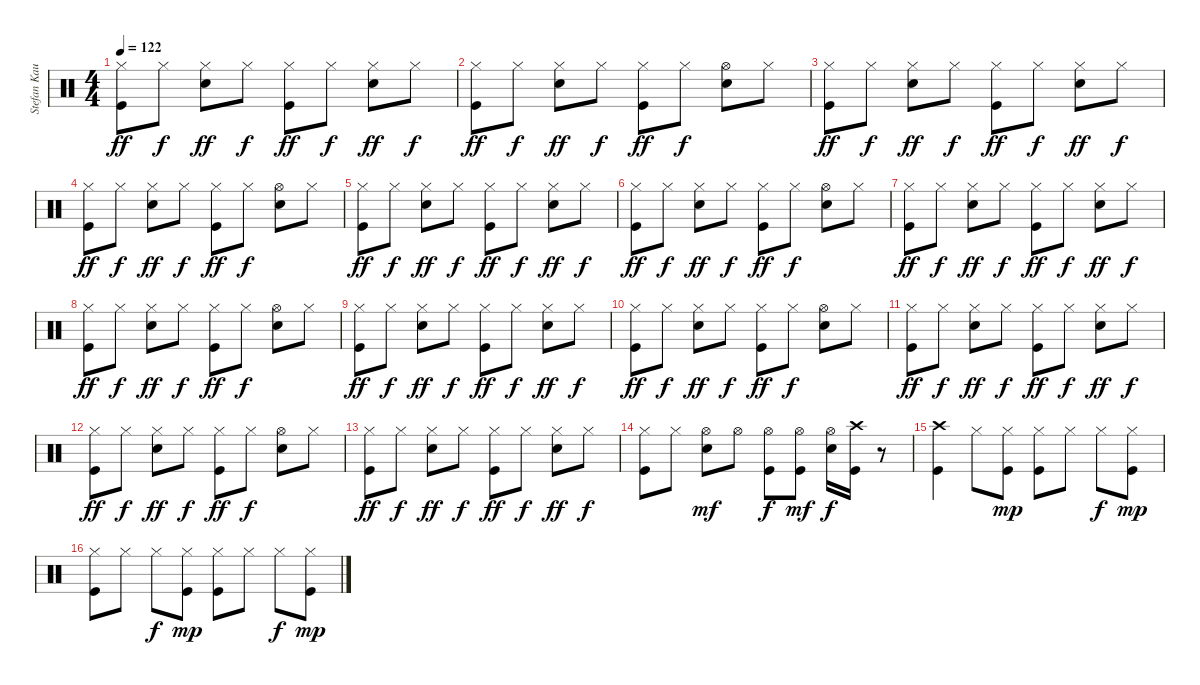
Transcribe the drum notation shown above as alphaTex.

\track ("Stefan Kaufmann" "Stefan Kau") {instrument percussion}
\staff {score}
\articulation defaults
\ts (4 4)
\tempo 122
\clef neutral
\ks c
("Hi-Hat (closed)" "Kick (hit)").8{dy ff} "Hi-Hat (closed)".8{dy f} ("Hi-Hat (closed)" "Snare (hit) 2").8{dy ff} "Hi-Hat (closed)".8{dy f} ("Hi-Hat (closed)" "Kick (hit)").8{dy ff} "Hi-Hat (closed)".8{dy f} ("Hi-Hat (closed)" "Snare (hit) 2").8{dy ff} "Hi-Hat (closed)".8{dy f} |
("Hi-Hat (closed)" "Kick (hit)").8{dy ff} "Hi-Hat (closed)".8{dy f} ("Hi-Hat (closed)" "Snare (hit) 2").8{dy ff} "Hi-Hat (closed)".8{dy f} ("Hi-Hat (closed)" "Kick (hit)").8{dy ff} "Hi-Hat (closed)".8{dy f} ("Hi-Hat (open)" "Snare (hit) 2").8 "Hi-Hat (closed)".8 |
("Hi-Hat (closed)" "Kick (hit)").8{dy ff} "Hi-Hat (closed)".8{dy f} ("Hi-Hat (closed)" "Snare (hit) 2").8{dy ff} "Hi-Hat (closed)".8{dy f} ("Hi-Hat (closed)" "Kick (hit)").8{dy ff} "Hi-Hat (closed)".8{dy f} ("Hi-Hat (closed)" "Snare (hit) 2").8{dy ff} "Hi-Hat (closed)".8{dy f} |
("Hi-Hat (closed)" "Kick (hit)").8{dy ff} "Hi-Hat (closed)".8{dy f} ("Hi-Hat (closed)" "Snare (hit) 2").8{dy ff} "Hi-Hat (closed)".8{dy f} ("Hi-Hat (closed)" "Kick (hit)").8{dy ff} "Hi-Hat (closed)".8{dy f} ("Hi-Hat (open)" "Snare (hit) 2").8 "Hi-Hat (closed)".8 |
("Hi-Hat (closed)" "Kick (hit)").8{dy ff} "Hi-Hat (closed)".8{dy f} ("Hi-Hat (closed)" "Snare (hit) 2").8{dy ff} "Hi-Hat (closed)".8{dy f} ("Hi-Hat (closed)" "Kick (hit)").8{dy ff} "Hi-Hat (closed)".8{dy f} ("Hi-Hat (closed)" "Snare (hit) 2").8{dy ff} "Hi-Hat (closed)".8{dy f} |
("Hi-Hat (closed)" "Kick (hit)").8{dy ff} "Hi-Hat (closed)".8{dy f} ("Hi-Hat (closed)" "Snare (hit) 2").8{dy ff} "Hi-Hat (closed)".8{dy f} ("Hi-Hat (closed)" "Kick (hit)").8{dy ff} "Hi-Hat (closed)".8{dy f} ("Hi-Hat (open)" "Snare (hit) 2").8 "Hi-Hat (closed)".8 |
("Hi-Hat (closed)" "Kick (hit)").8{dy ff} "Hi-Hat (closed)".8{dy f} ("Hi-Hat (closed)" "Snare (hit) 2").8{dy ff} "Hi-Hat (closed)".8{dy f} ("Hi-Hat (closed)" "Kick (hit)").8{dy ff} "Hi-Hat (closed)".8{dy f} ("Hi-Hat (closed)" "Snare (hit) 2").8{dy ff} "Hi-Hat (closed)".8{dy f} |
("Hi-Hat (closed)" "Kick (hit)").8{dy ff} "Hi-Hat (closed)".8{dy f} ("Hi-Hat (closed)" "Snare (hit) 2").8{dy ff} "Hi-Hat (closed)".8{dy f} ("Hi-Hat (closed)" "Kick (hit)").8{dy ff} "Hi-Hat (closed)".8{dy f} ("Hi-Hat (open)" "Snare (hit) 2").8 "Hi-Hat (closed)".8 |
("Hi-Hat (closed)" "Kick (hit)").8{dy ff} "Hi-Hat (closed)".8{dy f} ("Hi-Hat (closed)" "Snare (hit) 2").8{dy ff} "Hi-Hat (closed)".8{dy f} ("Hi-Hat (closed)" "Kick (hit)").8{dy ff} "Hi-Hat (closed)".8{dy f} ("Hi-Hat (closed)" "Snare (hit) 2").8{dy ff} "Hi-Hat (closed)".8{dy f} |
("Hi-Hat (closed)" "Kick (hit)").8{dy ff} "Hi-Hat (closed)".8{dy f} ("Hi-Hat (closed)" "Snare (hit) 2").8{dy ff} "Hi-Hat (closed)".8{dy f} ("Hi-Hat (closed)" "Kick (hit)").8{dy ff} "Hi-Hat (closed)".8{dy f} ("Hi-Hat (open)" "Snare (hit) 2").8 "Hi-Hat (closed)".8 |
("Hi-Hat (closed)" "Kick (hit)").8{dy ff} "Hi-Hat (closed)".8{dy f} ("Hi-Hat (closed)" "Snare (hit) 2").8{dy ff} "Hi-Hat (closed)".8{dy f} ("Hi-Hat (closed)" "Kick (hit)").8{dy ff} "Hi-Hat (closed)".8{dy f} ("Hi-Hat (closed)" "Snare (hit) 2").8{dy ff} "Hi-Hat (closed)".8{dy f} |
("Hi-Hat (closed)" "Kick (hit)").8{dy ff} "Hi-Hat (closed)".8{dy f} ("Hi-Hat (closed)" "Snare (hit) 2").8{dy ff} "Hi-Hat (closed)".8{dy f} ("Hi-Hat (closed)" "Kick (hit)").8{dy ff} "Hi-Hat (closed)".8{dy f} ("Hi-Hat (open)" "Snare (hit) 2").8 "Hi-Hat (closed)".8 |
("Hi-Hat (closed)" "Kick (hit)").8{dy ff} "Hi-Hat (closed)".8{dy f} ("Hi-Hat (closed)" "Snare (hit) 2").8{dy ff} "Hi-Hat (closed)".8{dy f} ("Hi-Hat (closed)" "Kick (hit)").8{dy ff} "Hi-Hat (closed)".8{dy f} ("Hi-Hat (closed)" "Snare (hit) 2").8{dy ff} "Hi-Hat (closed)".8{dy f} |
("Hi-Hat (closed)" "Kick (hit)").8 "Hi-Hat (closed)".8 ("Hi-Hat (open)" "Snare (hit) 2").8{dy mf} "Hi-Hat (open)".8 ("Hi-Hat (open)" "Kick (hit)").8{dy f} ("Hi-Hat (open)" "Kick (hit)").8{dy mf} ("Hi-Hat (open)" "Snare (hit) 2").16{dy f} ("Crash high (hit)" "Kick (hit)").16 r.8 |
("Crash high (hit)" "Kick (hit)").4 "Hi-Hat (closed)".8 ("Hi-Hat (closed)" "Kick (hit)").8{dy mp} ("Hi-Hat (closed)" "Kick (hit)").8 "Hi-Hat (closed)".8 "Hi-Hat (closed)".8{dy f} ("Hi-Hat (closed)" "Kick (hit)").8{dy mp} |
("Hi-Hat (closed)" "Kick (hit)").8 "Hi-Hat (closed)".8 "Hi-Hat (closed)".8{dy f} ("Hi-Hat (closed)" "Kick (hit)").8{dy mp} ("Hi-Hat (closed)" "Kick (hit)").8 "Hi-Hat (closed)".8 "Hi-Hat (closed)".8{dy f} ("Hi-Hat (closed)" "Kick (hit)").8{dy mp}
